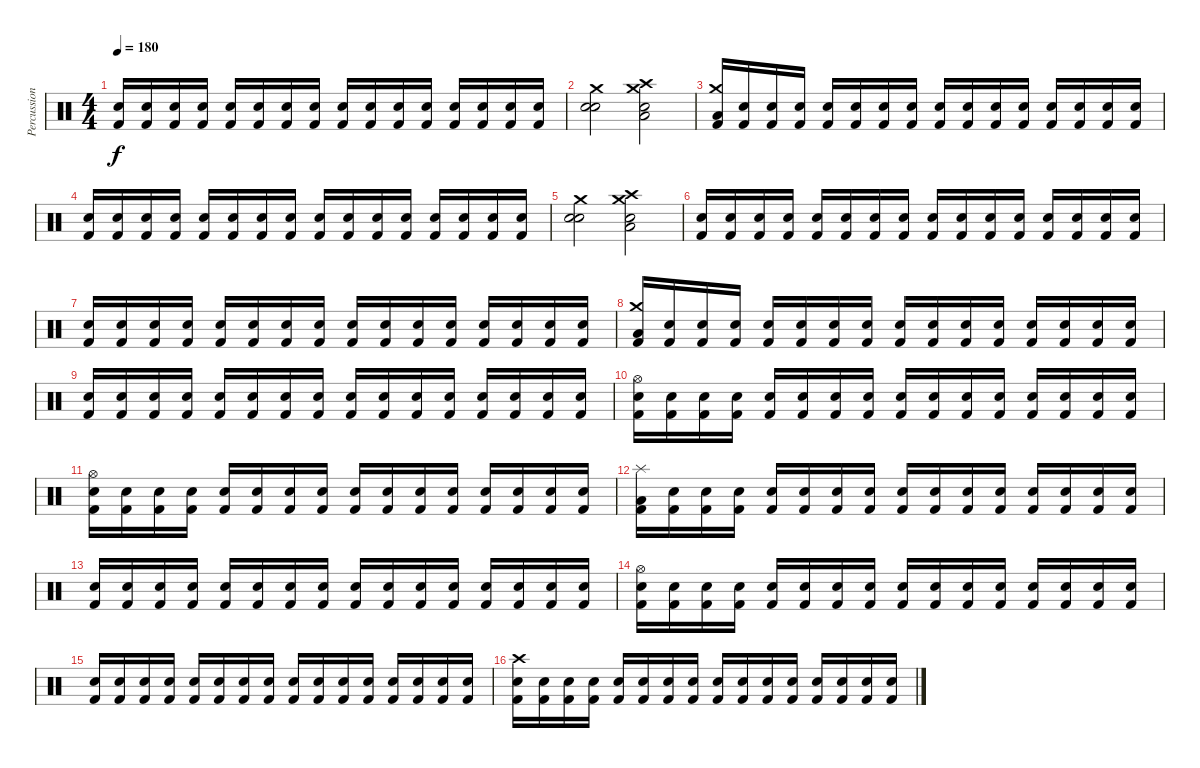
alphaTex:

\track ("Percussion" "Percussion") {instrument percussion}
\staff {score}
\articulation defaults
\ts (4 4)
\tempo 180
\clef neutral
\ks c
("Snare (hit) 2" "Kick (hit) 2").16{dy f} ("Electric Snare (hit)" "Kick (hit) 2").16 ("Snare (hit) 2" "Kick (hit) 2").16 ("Electric Snare (hit)" "Kick (hit) 2").16 ("Snare (hit) 2" "Kick (hit) 2").16 ("Electric Snare (hit)" "Kick (hit) 2").16 ("Snare (hit) 2" "Kick (hit) 2").16 ("Electric Snare (hit)" "Kick (hit) 2").16 ("Snare (hit) 2" "Kick (hit) 2").16 ("Electric Snare (hit)" "Kick (hit) 2").16 ("Snare (hit) 2" "Kick (hit) 2").16 ("Electric Snare (hit)" "Kick (hit) 2").16 ("Snare (hit) 2" "Kick (hit) 2").16 ("Electric Snare (hit)" "Kick (hit) 2").16 ("Snare (hit) 2" "Kick (hit) 2").16 ("Electric Snare (hit)" "Kick (hit) 2").16 |
("Crash medium (hit)" "Electric Snare (hit)" "Snare (hit) 2").2 ("Crash medium (hit)" "Crash high (hit)" "Low Tom (hit)" "Electric Snare (hit)").2 |
("Crash medium (hit)" "Low Tom (hit)" "Kick (hit) 2").16 ("Electric Snare (hit)" "Kick (hit) 2").16 ("Snare (hit) 2" "Kick (hit) 2").16 ("Electric Snare (hit)" "Kick (hit) 2").16 ("Snare (hit) 2" "Kick (hit) 2").16 ("Electric Snare (hit)" "Kick (hit) 2").16 ("Snare (hit) 2" "Kick (hit) 2").16 ("Electric Snare (hit)" "Kick (hit) 2").16 ("Snare (hit) 2" "Kick (hit) 2").16 ("Electric Snare (hit)" "Kick (hit) 2").16 ("Snare (hit) 2" "Kick (hit) 2").16 ("Electric Snare (hit)" "Kick (hit) 2").16 ("Snare (hit) 2" "Kick (hit) 2").16 ("Electric Snare (hit)" "Kick (hit) 2").16 ("Snare (hit) 2" "Kick (hit) 2").16 ("Electric Snare (hit)" "Kick (hit) 2").16 |
("Snare (hit) 2" "Kick (hit) 2").16 ("Electric Snare (hit)" "Kick (hit) 2").16 ("Snare (hit) 2" "Kick (hit) 2").16 ("Electric Snare (hit)" "Kick (hit) 2").16 ("Snare (hit) 2" "Kick (hit) 2").16 ("Electric Snare (hit)" "Kick (hit) 2").16 ("Snare (hit) 2" "Kick (hit) 2").16 ("Electric Snare (hit)" "Kick (hit) 2").16 ("Snare (hit) 2" "Kick (hit) 2").16 ("Electric Snare (hit)" "Kick (hit) 2").16 ("Snare (hit) 2" "Kick (hit) 2").16 ("Electric Snare (hit)" "Kick (hit) 2").16 ("Snare (hit) 2" "Kick (hit) 2").16 ("Electric Snare (hit)" "Kick (hit) 2").16 ("Snare (hit) 2" "Kick (hit) 2").16 ("Electric Snare (hit)" "Kick (hit) 2").16 |
("Crash medium (hit)" "Electric Snare (hit)" "Snare (hit) 2").2 ("Crash medium (hit)" "Crash high (hit)" "Low Tom (hit)" "Electric Snare (hit)").2 |
("Snare (hit) 2" "Kick (hit) 2").16 ("Electric Snare (hit)" "Kick (hit) 2").16 ("Snare (hit) 2" "Kick (hit) 2").16 ("Electric Snare (hit)" "Kick (hit) 2").16 ("Snare (hit) 2" "Kick (hit) 2").16 ("Electric Snare (hit)" "Kick (hit) 2").16 ("Snare (hit) 2" "Kick (hit) 2").16 ("Electric Snare (hit)" "Kick (hit) 2").16 ("Snare (hit) 2" "Kick (hit) 2").16 ("Electric Snare (hit)" "Kick (hit) 2").16 ("Snare (hit) 2" "Kick (hit) 2").16 ("Electric Snare (hit)" "Kick (hit) 2").16 ("Snare (hit) 2" "Kick (hit) 2").16 ("Electric Snare (hit)" "Kick (hit) 2").16 ("Snare (hit) 2" "Kick (hit) 2").16 ("Electric Snare (hit)" "Kick (hit) 2").16 |
("Snare (hit) 2" "Kick (hit) 2").16 ("Electric Snare (hit)" "Kick (hit) 2").16 ("Snare (hit) 2" "Kick (hit) 2").16 ("Electric Snare (hit)" "Kick (hit) 2").16 ("Snare (hit) 2" "Kick (hit) 2").16 ("Electric Snare (hit)" "Kick (hit) 2").16 ("Snare (hit) 2" "Kick (hit) 2").16 ("Electric Snare (hit)" "Kick (hit) 2").16 ("Snare (hit) 2" "Kick (hit) 2").16 ("Electric Snare (hit)" "Kick (hit) 2").16 ("Snare (hit) 2" "Kick (hit) 2").16 ("Electric Snare (hit)" "Kick (hit) 2").16 ("Snare (hit) 2" "Kick (hit) 2").16 ("Electric Snare (hit)" "Kick (hit) 2").16 ("Snare (hit) 2" "Kick (hit) 2").16 ("Electric Snare (hit)" "Kick (hit) 2").16 |
("Crash medium (hit)" "Low Tom (hit)" "Kick (hit) 2").16 ("Electric Snare (hit)" "Kick (hit) 2").16 ("Snare (hit) 2" "Kick (hit) 2").16 ("Electric Snare (hit)" "Kick (hit) 2").16 ("Snare (hit) 2" "Kick (hit) 2").16 ("Electric Snare (hit)" "Kick (hit) 2").16 ("Snare (hit) 2" "Kick (hit) 2").16 ("Electric Snare (hit)" "Kick (hit) 2").16 ("Snare (hit) 2" "Kick (hit) 2").16 ("Electric Snare (hit)" "Kick (hit) 2").16 ("Snare (hit) 2" "Kick (hit) 2").16 ("Electric Snare (hit)" "Kick (hit) 2").16 ("Snare (hit) 2" "Kick (hit) 2").16 ("Electric Snare (hit)" "Kick (hit) 2").16 ("Snare (hit) 2" "Kick (hit) 2").16 ("Electric Snare (hit)" "Kick (hit) 2").16 |
("Snare (hit) 2" "Kick (hit) 2").16 ("Electric Snare (hit)" "Kick (hit) 2").16 ("Snare (hit) 2" "Kick (hit) 2").16 ("Electric Snare (hit)" "Kick (hit) 2").16 ("Snare (hit) 2" "Kick (hit) 2").16 ("Electric Snare (hit)" "Kick (hit) 2").16 ("Snare (hit) 2" "Kick (hit) 2").16 ("Electric Snare (hit)" "Kick (hit) 2").16 ("Snare (hit) 2" "Kick (hit) 2").16 ("Electric Snare (hit)" "Kick (hit) 2").16 ("Snare (hit) 2" "Kick (hit) 2").16 ("Electric Snare (hit)" "Kick (hit) 2").16 ("Snare (hit) 2" "Kick (hit) 2").16 ("Electric Snare (hit)" "Kick (hit) 2").16 ("Snare (hit) 2" "Kick (hit) 2").16 ("Electric Snare (hit)" "Kick (hit) 2").16 |
("Hi-Hat (open)" "Snare (hit) 2" "Kick (hit) 2").16 ("Electric Snare (hit)" "Kick (hit) 2").16 ("Snare (hit) 2" "Kick (hit) 2").16 ("Electric Snare (hit)" "Kick (hit) 2").16 ("Snare (hit) 2" "Kick (hit) 2").16 ("Electric Snare (hit)" "Kick (hit) 2").16 ("Snare (hit) 2" "Kick (hit) 2").16 ("Electric Snare (hit)" "Kick (hit) 2").16 ("Snare (hit) 2" "Kick (hit) 2").16 ("Electric Snare (hit)" "Kick (hit) 2").16 ("Snare (hit) 2" "Kick (hit) 2").16 ("Electric Snare (hit)" "Kick (hit) 2").16 ("Snare (hit) 2" "Kick (hit) 2").16 ("Electric Snare (hit)" "Kick (hit) 2").16 ("Snare (hit) 2" "Kick (hit) 2").16 ("Electric Snare (hit)" "Kick (hit) 2").16 |
("Hi-Hat (open)" "Snare (hit) 2" "Kick (hit) 2").16 ("Electric Snare (hit)" "Kick (hit) 2").16 ("Snare (hit) 2" "Kick (hit) 2").16 ("Electric Snare (hit)" "Kick (hit) 2").16 ("Snare (hit) 2" "Kick (hit) 2").16 ("Electric Snare (hit)" "Kick (hit) 2").16 ("Snare (hit) 2" "Kick (hit) 2").16 ("Electric Snare (hit)" "Kick (hit) 2").16 ("Snare (hit) 2" "Kick (hit) 2").16 ("Electric Snare (hit)" "Kick (hit) 2").16 ("Snare (hit) 2" "Kick (hit) 2").16 ("Electric Snare (hit)" "Kick (hit) 2").16 ("Snare (hit) 2" "Kick (hit) 2").16 ("Electric Snare (hit)" "Kick (hit) 2").16 ("Snare (hit) 2" "Kick (hit) 2").16 ("Electric Snare (hit)" "Kick (hit) 2").16 |
("Splash (hit)" "Low Tom (hit)" "Kick (hit) 2").16 ("Electric Snare (hit)" "Kick (hit) 2").16 ("Snare (hit) 2" "Kick (hit) 2").16 ("Electric Snare (hit)" "Kick (hit) 2").16 ("Snare (hit) 2" "Kick (hit) 2").16 ("Electric Snare (hit)" "Kick (hit) 2").16 ("Snare (hit) 2" "Kick (hit) 2").16 ("Electric Snare (hit)" "Kick (hit) 2").16 ("Snare (hit) 2" "Kick (hit) 2").16 ("Electric Snare (hit)" "Kick (hit) 2").16 ("Snare (hit) 2" "Kick (hit) 2").16 ("Electric Snare (hit)" "Kick (hit) 2").16 ("Snare (hit) 2" "Kick (hit) 2").16 ("Electric Snare (hit)" "Kick (hit) 2").16 ("Snare (hit) 2" "Kick (hit) 2").16 ("Electric Snare (hit)" "Kick (hit) 2").16 |
("Snare (hit) 2" "Kick (hit) 2").16 ("Electric Snare (hit)" "Kick (hit) 2").16 ("Snare (hit) 2" "Kick (hit) 2").16 ("Electric Snare (hit)" "Kick (hit) 2").16 ("Snare (hit) 2" "Kick (hit) 2").16 ("Electric Snare (hit)" "Kick (hit) 2").16 ("Snare (hit) 2" "Kick (hit) 2").16 ("Electric Snare (hit)" "Kick (hit) 2").16 ("Snare (hit) 2" "Kick (hit) 2").16 ("Electric Snare (hit)" "Kick (hit) 2").16 ("Snare (hit) 2" "Kick (hit) 2").16 ("Electric Snare (hit)" "Kick (hit) 2").16 ("Snare (hit) 2" "Kick (hit) 2").16 ("Electric Snare (hit)" "Kick (hit) 2").16 ("Snare (hit) 2" "Kick (hit) 2").16 ("Electric Snare (hit)" "Kick (hit) 2").16 |
("Hi-Hat (open)" "Snare (hit) 2" "Kick (hit) 2").16 ("Electric Snare (hit)" "Kick (hit) 2").16 ("Snare (hit) 2" "Kick (hit) 2").16 ("Electric Snare (hit)" "Kick (hit) 2").16 ("Snare (hit) 2" "Kick (hit) 2").16 ("Electric Snare (hit)" "Kick (hit) 2").16 ("Snare (hit) 2" "Kick (hit) 2").16 ("Electric Snare (hit)" "Kick (hit) 2").16 ("Snare (hit) 2" "Kick (hit) 2").16 ("Electric Snare (hit)" "Kick (hit) 2").16 ("Snare (hit) 2" "Kick (hit) 2").16 ("Electric Snare (hit)" "Kick (hit) 2").16 ("Snare (hit) 2" "Kick (hit) 2").16 ("Electric Snare (hit)" "Kick (hit) 2").16 ("Snare (hit) 2" "Kick (hit) 2").16 ("Electric Snare (hit)" "Kick (hit) 2").16 |
("Snare (hit) 2" "Kick (hit) 2").16 ("Electric Snare (hit)" "Kick (hit) 2").16 ("Snare (hit) 2" "Kick (hit) 2").16 ("Electric Snare (hit)" "Kick (hit) 2").16 ("Snare (hit) 2" "Kick (hit) 2").16 ("Electric Snare (hit)" "Kick (hit) 2").16 ("Snare (hit) 2" "Kick (hit) 2").16 ("Electric Snare (hit)" "Kick (hit) 2").16 ("Snare (hit) 2" "Kick (hit) 2").16 ("Electric Snare (hit)" "Kick (hit) 2").16 ("Snare (hit) 2" "Kick (hit) 2").16 ("Electric Snare (hit)" "Kick (hit) 2").16 ("Snare (hit) 2" "Kick (hit) 2").16 ("Electric Snare (hit)" "Kick (hit) 2").16 ("Snare (hit) 2" "Kick (hit) 2").16 ("Electric Snare (hit)" "Kick (hit) 2").16 |
("Crash high (hit)" "Snare (hit) 2" "Kick (hit) 2").16 ("Electric Snare (hit)" "Kick (hit) 2").16 ("Snare (hit) 2" "Kick (hit) 2").16 ("Electric Snare (hit)" "Kick (hit) 2").16 ("Snare (hit) 2" "Kick (hit) 2").16 ("Electric Snare (hit)" "Kick (hit) 2").16 ("Snare (hit) 2" "Kick (hit) 2").16 ("Electric Snare (hit)" "Kick (hit) 2").16 ("Snare (hit) 2" "Kick (hit) 2").16 ("Electric Snare (hit)" "Kick (hit) 2").16 ("Snare (hit) 2" "Kick (hit) 2").16 ("Electric Snare (hit)" "Kick (hit) 2").16 ("Snare (hit) 2" "Kick (hit) 2").16 ("Electric Snare (hit)" "Kick (hit) 2").16 ("Snare (hit) 2" "Kick (hit) 2").16 ("Electric Snare (hit)" "Kick (hit) 2").16
